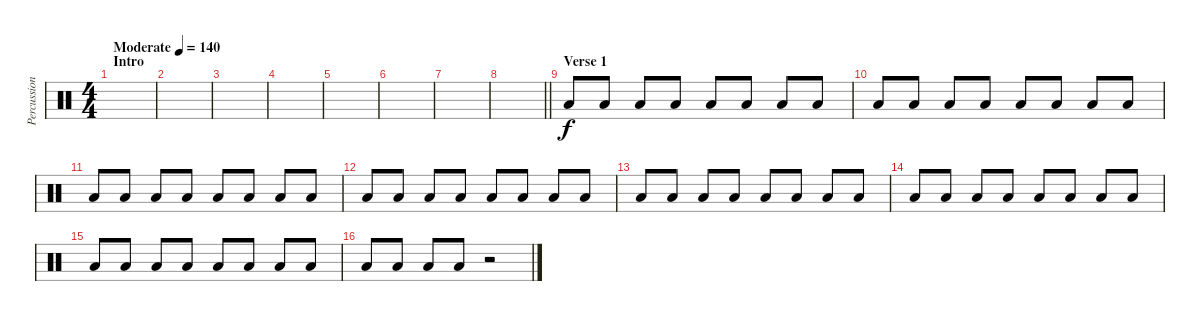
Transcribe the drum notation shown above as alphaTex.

\track ("Percussion (LP III)" "Percussion") {instrument percussion}
\staff {score}
\articulation defaults
\ts (4 4)
\section ("" "Intro")
\tempo (140 "Moderate")
\clef neutral
\ks c
|
|
|
|
|
|
|
\barLineRight lightlight
|
\section ("" "Verse 1")
"Low Tom (hit)".8{volume 8} "Low Tom (hit)".8 "Low Tom (hit)".8 "Low Tom (hit)".8 "Low Tom (hit)".8 "Low Tom (hit)".8 "Low Tom (hit)".8 "Low Tom (hit)".8 |
"Low Tom (hit)".8 "Low Tom (hit)".8 "Low Tom (hit)".8 "Low Tom (hit)".8 "Low Tom (hit)".8 "Low Tom (hit)".8 "Low Tom (hit)".8 "Low Tom (hit)".8 |
"Low Tom (hit)".8 "Low Tom (hit)".8 "Low Tom (hit)".8 "Low Tom (hit)".8 "Low Tom (hit)".8 "Low Tom (hit)".8 "Low Tom (hit)".8 "Low Tom (hit)".8 |
"Low Tom (hit)".8 "Low Tom (hit)".8 "Low Tom (hit)".8 "Low Tom (hit)".8 "Low Tom (hit)".8 "Low Tom (hit)".8 "Low Tom (hit)".8 "Low Tom (hit)".8 |
"Low Tom (hit)".8 "Low Tom (hit)".8 "Low Tom (hit)".8 "Low Tom (hit)".8 "Low Tom (hit)".8 "Low Tom (hit)".8 "Low Tom (hit)".8 "Low Tom (hit)".8 |
"Low Tom (hit)".8 "Low Tom (hit)".8 "Low Tom (hit)".8 "Low Tom (hit)".8 "Low Tom (hit)".8 "Low Tom (hit)".8 "Low Tom (hit)".8 "Low Tom (hit)".8 |
"Low Tom (hit)".8 "Low Tom (hit)".8 "Low Tom (hit)".8 "Low Tom (hit)".8 "Low Tom (hit)".8 "Low Tom (hit)".8 "Low Tom (hit)".8 "Low Tom (hit)".8 |
"Low Tom (hit)".8 "Low Tom (hit)".8 "Low Tom (hit)".8 "Low Tom (hit)".8 r.2
